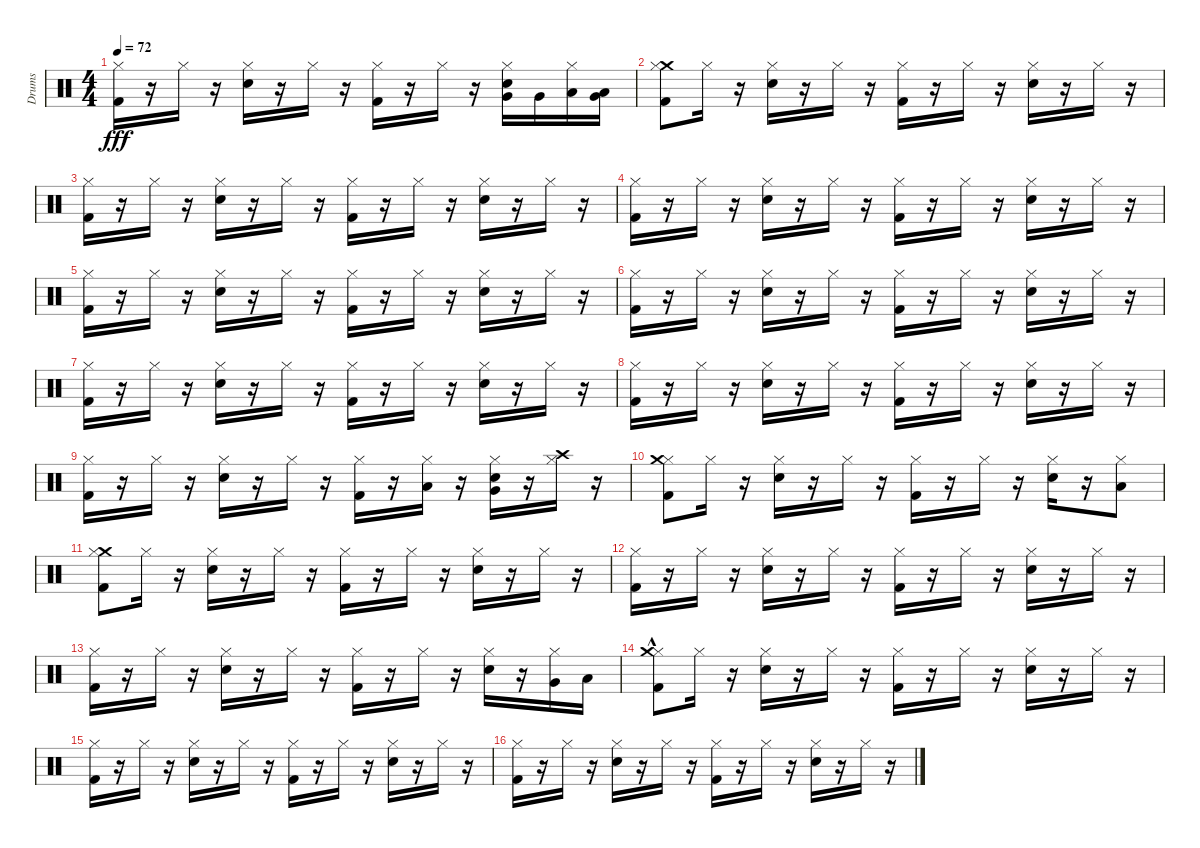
\track ("Drums" "Drums") {instrument percussion}
\staff {score}
\articulation defaults
\ts (4 4)
\tempo 72
\clef neutral
\ks c
("Hi-Hat (closed)" "Kick (hit) 2").16{dy fff} r.16 "Hi-Hat (closed)".16 r.16 ("Hi-Hat (closed)" "Snare (hit) 2").16 r.16 "Hi-Hat (closed)".16 r.16 ("Hi-Hat (closed)" "Kick (hit) 2").16 r.16 "Hi-Hat (closed)".16 r.16 ("Snare (hit) 2" "Hi-Hat (closed)" "Very Low Tom (hit)").16 "Very Low Tom (hit)".16 ("Hi-Hat (closed)" "Low Floor Tom (hit)").16 ("Low Floor Tom (hit)" "Very Low Tom (hit)").16 |
("Crash medium (hit)" "Kick (hit) 2" "Hi-Hat (closed)").8 "Hi-Hat (closed)".16 r.16 ("Snare (hit) 2" "Hi-Hat (closed)").16 r.16 "Hi-Hat (closed)".16 r.16 ("Hi-Hat (closed)" "Kick (hit) 2").16 r.16 "Hi-Hat (closed)".16 r.16 ("Snare (hit) 2" "Hi-Hat (closed)").16 r.16 "Hi-Hat (closed)".16 r.16 |
("Kick (hit) 2" "Hi-Hat (closed)").16 r.16 "Hi-Hat (closed)".16 r.16 ("Hi-Hat (closed)" "Snare (hit) 2").16 r.16 "Hi-Hat (closed)".16 r.16 ("Hi-Hat (closed)" "Kick (hit) 2").16 r.16 "Hi-Hat (closed)".16 r.16 ("Snare (hit) 2" "Hi-Hat (closed)").16 r.16 "Hi-Hat (closed)".16 r.16 |
("Kick (hit) 2" "Hi-Hat (closed)").16 r.16 "Hi-Hat (closed)".16 r.16 ("Hi-Hat (closed)" "Snare (hit) 2").16 r.16 "Hi-Hat (closed)".16 r.16 ("Kick (hit) 2" "Hi-Hat (closed)").16 r.16 "Hi-Hat (closed)".16 r.16 ("Snare (hit) 2" "Hi-Hat (closed)").16 r.16 "Hi-Hat (closed)".16 r.16 |
("Kick (hit) 2" "Hi-Hat (closed)").16 r.16 "Hi-Hat (closed)".16 r.16 ("Snare (hit) 2" "Hi-Hat (closed)").16 r.16 "Hi-Hat (closed)".16 r.16 ("Kick (hit) 2" "Hi-Hat (closed)").16 r.16 "Hi-Hat (closed)".16 r.16 ("Hi-Hat (closed)" "Snare (hit) 2").16 r.16 "Hi-Hat (closed)".16 r.16 |
("Hi-Hat (closed)" "Kick (hit) 2").16 r.16 "Hi-Hat (closed)".16 r.16 ("Snare (hit) 2" "Hi-Hat (closed)").16 r.16 "Hi-Hat (closed)".16 r.16 ("Kick (hit) 2" "Hi-Hat (closed)").16 r.16 "Hi-Hat (closed)".16 r.16 ("Hi-Hat (closed)" "Snare (hit) 2").16 r.16 "Hi-Hat (closed)".16 r.16 |
("Kick (hit) 2" "Hi-Hat (closed)").16 r.16 "Hi-Hat (closed)".16 r.16 ("Snare (hit) 2" "Hi-Hat (closed)").16 r.16 "Hi-Hat (closed)".16 r.16 ("Hi-Hat (closed)" "Kick (hit) 2").16 r.16 "Hi-Hat (closed)".16 r.16 ("Hi-Hat (closed)" "Snare (hit) 2").16 r.16 "Hi-Hat (closed)".16 r.16 |
("Hi-Hat (closed)" "Kick (hit) 2").16 r.16 "Hi-Hat (closed)".16 r.16 ("Hi-Hat (closed)" "Snare (hit) 2").16 r.16 "Hi-Hat (closed)".16 r.16 ("Hi-Hat (closed)" "Kick (hit) 2").16 r.16 "Hi-Hat (closed)".16 r.16 ("Hi-Hat (closed)" "Snare (hit) 2").16 r.16 "Hi-Hat (closed)".16 r.16 |
("Kick (hit) 2" "Hi-Hat (closed)").16 r.16 "Hi-Hat (closed)".16 r.16 ("Hi-Hat (closed)" "Snare (hit) 2").16 r.16 "Hi-Hat (closed)".16 r.16 ("Kick (hit) 2" "Hi-Hat (closed)").16 r.16 ("Hi-Hat (closed)" "Low Tom (hit)").16 r.16 ("Snare (hit) 2" "Hi-Hat (closed)" "Very Low Tom (hit)").16 r.16 ("Hi-Hat (closed)" "Crash high (hit)").16 r.16 |
("Kick (hit) 2" "Hi-Hat (closed)" "Crash medium (hit)").8 "Hi-Hat (closed)".16 r.16 ("Hi-Hat (closed)" "Snare (hit) 2").16 r.16 "Hi-Hat (closed)".16 r.16 ("Kick (hit) 2" "Hi-Hat (closed)").16 r.16 "Hi-Hat (closed)".16 r.16 ("Snare (hit) 2" "Hi-Hat (closed)").16 r.16 ("Hi-Hat (closed)" "Low Floor Tom (hit)").8 |
("Crash medium (hit)" "Kick (hit) 2" "Hi-Hat (closed)").8 "Hi-Hat (closed)".16 r.16 ("Snare (hit) 2" "Hi-Hat (closed)").16 r.16 "Hi-Hat (closed)".16 r.16 ("Kick (hit) 2" "Hi-Hat (closed)").16 r.16 "Hi-Hat (closed)".16 r.16 ("Hi-Hat (closed)" "Snare (hit) 2").16 r.16 "Hi-Hat (closed)".16 r.16 |
("Hi-Hat (closed)" "Kick (hit) 2").16 r.16 "Hi-Hat (closed)".16 r.16 ("Snare (hit) 2" "Hi-Hat (closed)").16 r.16 "Hi-Hat (closed)".16 r.16 ("Hi-Hat (closed)" "Kick (hit) 2").16 r.16 "Hi-Hat (closed)".16 r.16 ("Snare (hit) 2" "Hi-Hat (closed)").16 r.16 "Hi-Hat (closed)".16 r.16 |
("Hi-Hat (closed)" "Kick (hit) 2").16 r.16 "Hi-Hat (closed)".16 r.16 ("Snare (hit) 2" "Hi-Hat (closed)").16 r.16 "Hi-Hat (closed)".16 r.16 ("Hi-Hat (closed)" "Kick (hit) 2").16 r.16 "Hi-Hat (closed)".16 r.16 ("Hi-Hat (closed)" "Snare (hit) 2").16 r.16 ("Hi-Hat (closed)" "Very Low Tom (hit)").16 "Low Floor Tom (hit)".16 |
("Hi-Hat (closed)" "Kick (hit) 2" "Crash medium (hit)"{hac}).8 "Hi-Hat (closed)".16 r.16 ("Snare (hit) 2" "Hi-Hat (closed)").16 r.16 "Hi-Hat (closed)".16 r.16 ("Kick (hit) 2" "Hi-Hat (closed)").16 r.16 "Hi-Hat (closed)".16 r.16 ("Hi-Hat (closed)" "Snare (hit) 2").16 r.16 "Hi-Hat (closed)".16 r.16 |
("Kick (hit) 2" "Hi-Hat (closed)").16 r.16 "Hi-Hat (closed)".16 r.16 ("Hi-Hat (closed)" "Snare (hit) 2").16 r.16 "Hi-Hat (closed)".16 r.16 ("Kick (hit) 2" "Hi-Hat (closed)").16 r.16 "Hi-Hat (closed)".16 r.16 ("Snare (hit) 2" "Hi-Hat (closed)").16 r.16 "Hi-Hat (closed)".16 r.16 |
("Hi-Hat (closed)" "Kick (hit) 2").16 r.16 "Hi-Hat (closed)".16 r.16 ("Hi-Hat (closed)" "Snare (hit) 2").16 r.16 "Hi-Hat (closed)".16 r.16 ("Kick (hit) 2" "Hi-Hat (closed)").16 r.16 "Hi-Hat (closed)".16 r.16 ("Hi-Hat (closed)" "Snare (hit) 2").16 r.16 "Hi-Hat (closed)".16 r.16
